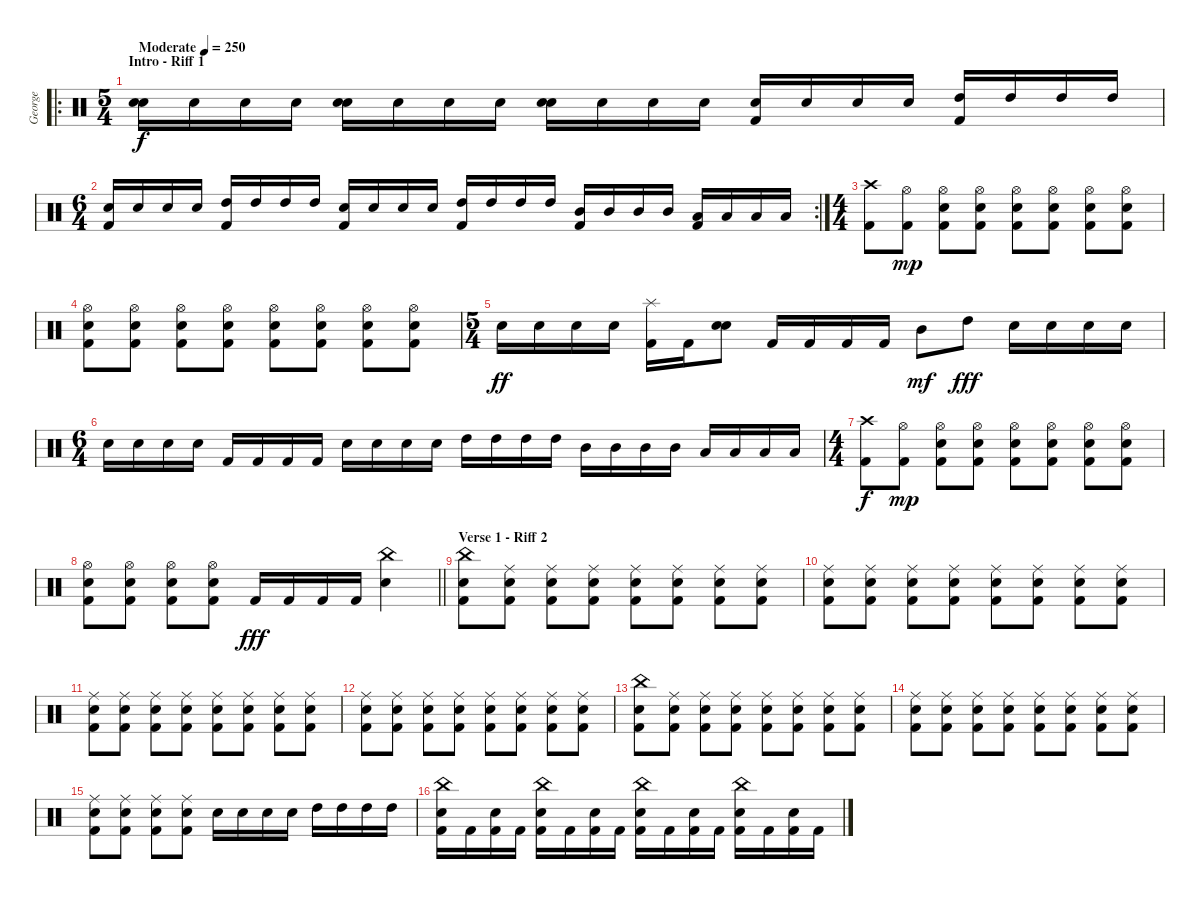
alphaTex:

\track ("George" "George") {instrument percussion}
\staff {score}
\articulation defaults
\ro
\ts (5 4)
\section ("" "Intro - Riff 1")
\tempo (250 "Moderate")
\clef neutral
\ks c
("Snare (hit)" "Snare (hit) 2").16{dy f} "Snare (hit) 2".16 "Snare (hit) 2".16 "Snare (hit) 2".16 ("Snare (hit)" "Snare (hit) 2").16 "Snare (hit) 2".16 "Snare (hit) 2".16 "Snare (hit) 2".16 ("Snare (hit)" "Snare (hit) 2").16 "Snare (hit) 2".16 "Snare (hit) 2".16 "Snare (hit) 2".16 ("Kick (hit) 2" "Snare (hit) 2").16 "Snare (hit) 2".16 "Snare (hit) 2".16 "Snare (hit) 2".16 ("Kick (hit) 2" "High Tom (hit)").16 "High Tom (hit)".16 "High Tom (hit)".16 "High Tom (hit)".16 |
\rc 2
\ts (6 4)
("Kick (hit) 2" "Snare (hit) 2").16 "Snare (hit) 2".16 "Snare (hit) 2".16 "Snare (hit) 2".16 ("Kick (hit) 2" "High Tom (hit)").16 "High Tom (hit)".16 "High Tom (hit)".16 "High Tom (hit)".16 ("Kick (hit) 2" "Snare (hit) 2").16 "Snare (hit) 2".16 "Snare (hit) 2".16 "Snare (hit) 2".16 ("Kick (hit) 2" "High Tom (hit)").16 "High Tom (hit)".16 "High Tom (hit)".16 "High Tom (hit)".16 ("Kick (hit) 2" "Mid Tom (hit)").16 "Mid Tom (hit)".16 "Mid Tom (hit)".16 "Mid Tom (hit)".16 ("Kick (hit) 2" "Low Tom (hit)").16 "Low Tom (hit)".16 "Low Tom (hit)".16 "Low Tom (hit)".16 |
\ts (4 4)
("Crash high (hit)" "Kick (hit) 2").8 ("Hi-Hat (open)" "Kick (hit) 2").8{dy mp} ("Hi-Hat (open)" "Snare (hit) 2" "Kick (hit) 2").8 ("Hi-Hat (open)" "Snare (hit) 2" "Kick (hit) 2").8 ("Hi-Hat (open)" "Snare (hit) 2" "Kick (hit) 2").8 ("Hi-Hat (open)" "Snare (hit) 2" "Kick (hit) 2").8 ("Hi-Hat (open)" "Snare (hit) 2" "Kick (hit) 2").8 ("Hi-Hat (open)" "Snare (hit) 2" "Kick (hit) 2").8 |
("Hi-Hat (open)" "Snare (hit) 2" "Kick (hit) 2").8 ("Hi-Hat (open)" "Snare (hit) 2" "Kick (hit) 2").8 ("Hi-Hat (open)" "Snare (hit) 2" "Kick (hit) 2").8 ("Hi-Hat (open)" "Snare (hit) 2" "Kick (hit) 2").8 ("Hi-Hat (open)" "Snare (hit) 2" "Kick (hit) 2").8 ("Hi-Hat (open)" "Snare (hit) 2" "Kick (hit) 2").8 ("Hi-Hat (open)" "Snare (hit) 2" "Kick (hit) 2").8 ("Hi-Hat (open)" "Snare (hit) 2" "Kick (hit) 2").8 |
\ts (5 4)
"Snare (hit) 2".16{dy ff} "Snare (hit) 2".16 "Snare (hit) 2".16 "Snare (hit) 2".16 ("Splash (hit)" "Kick (hit) 2").16 "Kick (hit) 2".16 ("Snare (hit) 2" "Snare (hit)").8 "Kick (hit) 2".16 "Kick (hit) 2".16 "Kick (hit) 2".16 "Kick (hit) 2".16 "Mid Tom (hit)".8{dy mf} "High Tom (hit)".8{dy fff} "Snare (hit) 2".16 "Snare (hit) 2".16 "Snare (hit) 2".16 "Snare (hit) 2".16 |
\ts (6 4)
"Snare (hit) 2".16 "Snare (hit) 2".16 "Snare (hit) 2".16 "Snare (hit) 2".16 "Kick (hit) 2".16 "Kick (hit) 2".16 "Kick (hit) 2".16 "Kick (hit) 2".16 "Snare (hit) 2".16 "Snare (hit) 2".16 "Snare (hit) 2".16 "Snare (hit) 2".16 "High Tom (hit)".16 "High Tom (hit)".16 "High Tom (hit)".16 "High Tom (hit)".16 "Mid Tom (hit)".16 "Mid Tom (hit)".16 "Mid Tom (hit)".16 "Mid Tom (hit)".16 "Low Tom (hit)".16 "Low Tom (hit)".16 "Low Tom (hit)".16 "Low Tom (hit)".16 |
\ts (4 4)
("Crash high (hit)" "Kick (hit) 2").8{dy f} ("Hi-Hat (open)" "Kick (hit) 2").8{dy mp} ("Hi-Hat (open)" "Snare (hit) 2" "Kick (hit) 2").8 ("Hi-Hat (open)" "Snare (hit) 2" "Kick (hit) 2").8 ("Hi-Hat (open)" "Snare (hit) 2" "Kick (hit) 2").8 ("Hi-Hat (open)" "Snare (hit) 2" "Kick (hit) 2").8 ("Hi-Hat (open)" "Snare (hit) 2" "Kick (hit) 2").8 ("Hi-Hat (open)" "Snare (hit) 2" "Kick (hit) 2").8 |
\barLineRight lightlight
("Hi-Hat (open)" "Snare (hit) 2" "Kick (hit) 2").8 ("Hi-Hat (open)" "Snare (hit) 2" "Kick (hit) 2").8 ("Hi-Hat (open)" "Snare (hit) 2" "Kick (hit) 2").8 ("Hi-Hat (open)" "Snare (hit) 2" "Kick (hit) 2").8 "Kick (hit) 2".16{dy fff} "Kick (hit) 2".16 "Kick (hit) 2".16 "Kick (hit) 2".16 ("China (hit)" "Snare (hit) 2").4 |
\section ("" "Verse 1 - Riff 2")
("Snare (hit) 2" "China (hit)" "Kick (hit) 2").8 ("Snare (hit) 2" "Ride (middle)" "Kick (hit) 2").8 ("Snare (hit) 2" "Ride (middle)" "Kick (hit) 2").8 ("Snare (hit) 2" "Ride (middle)" "Kick (hit) 2").8 ("Snare (hit) 2" "Ride (middle)" "Kick (hit) 2").8 ("Snare (hit) 2" "Ride (middle)" "Kick (hit) 2").8 ("Snare (hit) 2" "Ride (middle)" "Kick (hit) 2").8 ("Snare (hit) 2" "Ride (middle)" "Kick (hit) 2").8 |
("Snare (hit) 2" "Ride (middle)" "Kick (hit) 2").8 ("Snare (hit) 2" "Ride (middle)" "Kick (hit) 2").8 ("Snare (hit) 2" "Ride (middle)" "Kick (hit) 2").8 ("Snare (hit) 2" "Ride (middle)" "Kick (hit) 2").8 ("Snare (hit) 2" "Ride (middle)" "Kick (hit) 2").8 ("Snare (hit) 2" "Ride (middle)" "Kick (hit) 2").8 ("Snare (hit) 2" "Ride (middle)" "Kick (hit) 2").8 ("Snare (hit) 2" "Ride (middle)" "Kick (hit) 2").8 |
("Snare (hit) 2" "Ride (middle)" "Kick (hit) 2").8 ("Snare (hit) 2" "Ride (middle)" "Kick (hit) 2").8 ("Snare (hit) 2" "Ride (middle)" "Kick (hit) 2").8 ("Snare (hit) 2" "Ride (middle)" "Kick (hit) 2").8 ("Snare (hit) 2" "Ride (middle)" "Kick (hit) 2").8 ("Snare (hit) 2" "Ride (middle)" "Kick (hit) 2").8 ("Snare (hit) 2" "Ride (middle)" "Kick (hit) 2").8 ("Snare (hit) 2" "Ride (middle)" "Kick (hit) 2").8 |
("Snare (hit) 2" "Ride (middle)" "Kick (hit) 2").8 ("Snare (hit) 2" "Ride (middle)" "Kick (hit) 2").8 ("Snare (hit) 2" "Ride (middle)" "Kick (hit) 2").8 ("Snare (hit) 2" "Ride (middle)" "Kick (hit) 2").8 ("Snare (hit) 2" "Ride (middle)" "Kick (hit) 2").8 ("Snare (hit) 2" "Ride (middle)" "Kick (hit) 2").8 ("Snare (hit) 2" "Ride (middle)" "Kick (hit) 2").8 ("Snare (hit) 2" "Ride (middle)" "Kick (hit) 2").8 |
("Snare (hit) 2" "China (hit)" "Kick (hit) 2").8 ("Snare (hit) 2" "Ride (middle)" "Kick (hit) 2").8 ("Snare (hit) 2" "Ride (middle)" "Kick (hit) 2").8 ("Snare (hit) 2" "Ride (middle)" "Kick (hit) 2").8 ("Snare (hit) 2" "Ride (middle)" "Kick (hit) 2").8 ("Snare (hit) 2" "Ride (middle)" "Kick (hit) 2").8 ("Snare (hit) 2" "Ride (middle)" "Kick (hit) 2").8 ("Snare (hit) 2" "Ride (middle)" "Kick (hit) 2").8 |
("Snare (hit) 2" "Ride (middle)" "Kick (hit) 2").8 ("Snare (hit) 2" "Ride (middle)" "Kick (hit) 2").8 ("Snare (hit) 2" "Ride (middle)" "Kick (hit) 2").8 ("Snare (hit) 2" "Ride (middle)" "Kick (hit) 2").8 ("Snare (hit) 2" "Ride (middle)" "Kick (hit) 2").8 ("Snare (hit) 2" "Ride (middle)" "Kick (hit) 2").8 ("Snare (hit) 2" "Ride (middle)" "Kick (hit) 2").8 ("Snare (hit) 2" "Ride (middle)" "Kick (hit) 2").8 |
("Snare (hit) 2" "Ride (middle)" "Kick (hit) 2").8 ("Snare (hit) 2" "Ride (middle)" "Kick (hit) 2").8 ("Snare (hit) 2" "Ride (middle)" "Kick (hit) 2").8 ("Snare (hit) 2" "Ride (middle)" "Kick (hit) 2").8 "Snare (hit) 2".16 "Snare (hit) 2".16 "Snare (hit) 2".16 "Snare (hit) 2".16 "High Tom (hit)".16 "High Tom (hit)".16 "High Tom (hit)".16 "High Tom (hit)".16 |
("China (hit)" "Snare (hit) 2" "Kick (hit) 2").16 "Kick (hit) 2".16 ("Snare (hit) 2" "Kick (hit) 2").16 "Kick (hit) 2".16 ("China (hit)" "Snare (hit) 2" "Kick (hit) 2").16 "Kick (hit) 2".16 ("Snare (hit) 2" "Kick (hit) 2").16 "Kick (hit) 2".16 ("China (hit)" "Snare (hit) 2" "Kick (hit) 2").16 "Kick (hit) 2".16 ("Snare (hit) 2" "Kick (hit) 2").16 "Kick (hit) 2".16 ("China (hit)" "Snare (hit) 2" "Kick (hit) 2").16 "Kick (hit) 2".16 ("Snare (hit) 2" "Kick (hit) 2").16 "Kick (hit) 2".16
